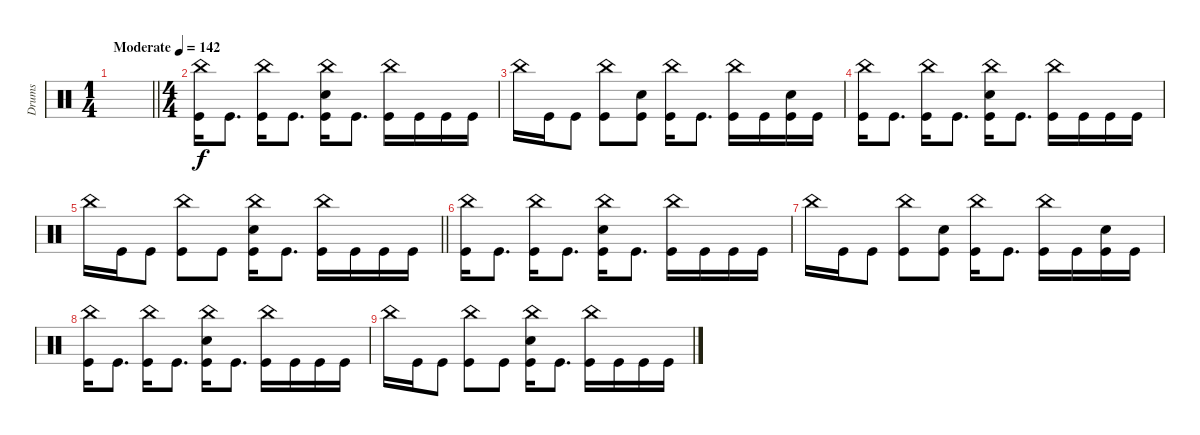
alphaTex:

\track ("Drums" "Drums") {instrument percussion}
\staff
\articulation defaults
\ts (1 4)
\tempo (142 "Moderate")
\clef neutral
\barLineRight lightlight
\ks c
|
\ts (4 4)
("China (hit)" "Kick (hit)").16 "Kick (hit)".8{d} ("China (hit)" "Kick (hit)").16 "Kick (hit)".8{d} ("China (hit)" "Electric Snare (hit)" "Kick (hit)").16 "Kick (hit)".8{d} ("China (hit)" "Kick (hit)").16 "Kick (hit)".16 "Kick (hit)".16 "Kick (hit)".16 |
"China (hit)".16 "Kick (hit)".16 "Kick (hit)".8 ("China (hit)" "Kick (hit)").8 ("Electric Snare (hit)" "Kick (hit)").8 ("China (hit)" "Kick (hit)").16 "Kick (hit)".8{d} ("China (hit)" "Kick (hit)").16 "Kick (hit)".16 ("Electric Snare (hit)" "Kick (hit)").16 "Kick (hit)".16 |
("China (hit)" "Kick (hit)").16 "Kick (hit)".8{d} ("China (hit)" "Kick (hit)").16 "Kick (hit)".8{d} ("China (hit)" "Electric Snare (hit)" "Kick (hit)").16 "Kick (hit)".8{d} ("China (hit)" "Kick (hit)").16 "Kick (hit)".16 "Kick (hit)".16 "Kick (hit)".16 |
\barLineRight lightlight "China (hit)".16 "Kick (hit)".16 "Kick (hit)".8
("China (hit)" "Kick (hit)").8 "Kick (hit)".8 ("China (hit)" "Electric Snare (hit)" "Kick (hit)").16 "Kick (hit)".8{d} ("China (hit)" "Kick (hit)").16 "Kick (hit)".16 "Kick (hit)".16 "Kick (hit)".16 |
("China (hit)" "Kick (hit)").16 "Kick (hit)".8{d} ("China (hit)" "Kick (hit)").16 "Kick (hit)".8{d} ("China (hit)" "Electric Snare (hit)" "Kick (hit)").16 "Kick (hit)".8{d} ("China (hit)" "Kick (hit)").16 "Kick (hit)".16 "Kick (hit)".16 "Kick (hit)".16 |
"China (hit)".16 "Kick (hit)".16 "Kick (hit)".8 ("China (hit)" "Kick (hit)").8 ("Electric Snare (hit)" "Kick (hit)").8 ("China (hit)" "Kick (hit)").16 "Kick (hit)".8{d} ("China (hit)" "Kick (hit)").16 "Kick (hit)".16 ("Electric Snare (hit)" "Kick (hit)").16 "Kick (hit)".16 |
("China (hit)" "Kick (hit)").16 "Kick (hit)".8{d} ("China (hit)" "Kick (hit)").16 "Kick (hit)".8{d} ("China (hit)" "Electric Snare (hit)" "Kick (hit)").16 "Kick (hit)".8{d} ("China (hit)" "Kick (hit)").16 "Kick (hit)".16 "Kick (hit)".16 "Kick (hit)".16 |
"China (hit)".16 "Kick (hit)".16 "Kick (hit)".8 ("China (hit)" "Kick (hit)").8 "Kick (hit)".8 ("China (hit)" "Electric Snare (hit)" "Kick (hit)").16 "Kick (hit)".8{d} ("China (hit)" "Kick (hit)").16 "Kick (hit)".16 "Kick (hit)".16 "Kick (hit)".16
